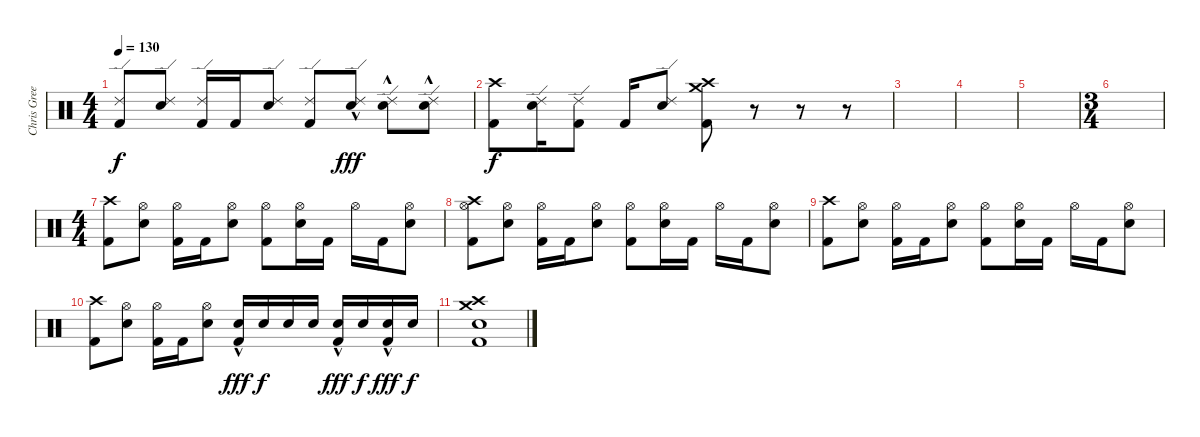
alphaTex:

\track ("Chris Greer - Drums" "Chris Gree") {instrument percussion}
\staff {score}
\articulation defaults
\ts (4 4)
\tempo 130
\clef neutral
\ks c
("Ride (edge) 2" "Kick (hit) 2").8{dy f} ("Ride (edge) 2" "Electric Snare (hit)").8 ("Ride (edge) 2" "Kick (hit) 2").16 "Kick (hit) 2".16 ("Ride (edge) 2" "Electric Snare (hit)").8 ("Ride (edge) 2" "Kick (hit) 2").8 ("Ride (edge) 2" "Electric Snare (hit)"{hac}).8{dy fff} ("Ride (edge) 2" "Electric Snare (hit)"{hac}).8 ("Ride (edge) 2" "Electric Snare (hit)"{hac}).8 |
("Crash high (hit)" "Kick (hit) 2").8{dy f} ("Ride (edge) 2" "Electric Snare (hit)").16 ("Ride (edge) 2" "Kick (hit) 2").8 "Kick (hit) 2".16 ("Ride (edge) 2" "Electric Snare (hit)").8 ("Crash high (hit)" "Crash medium (hit)" "Kick (hit) 2").8 r.8 r.8 r.8 |
|
|
|
\ts (3 4)
|
\ts (4 4)
("Crash high (hit)" "Kick (hit) 2").8 ("Hi-Hat (open)" "Electric Snare (hit)").8 ("Hi-Hat (open)" "Kick (hit) 2").16 "Kick (hit) 2".16 ("Hi-Hat (open)" "Electric Snare (hit)").8 ("Hi-Hat (open)" "Kick (hit) 2").8 ("Hi-Hat (open)" "Electric Snare (hit)").16 "Kick (hit) 2".16 "Hi-Hat (open)".16 "Kick (hit) 2".16 ("Hi-Hat (open)" "Electric Snare (hit)").8 |
("Crash high (hit)" "Hi-Hat (open)" "Kick (hit) 2").8 ("Hi-Hat (open)" "Electric Snare (hit)").8 ("Hi-Hat (open)" "Kick (hit) 2").16 "Kick (hit) 2".16 ("Hi-Hat (open)" "Electric Snare (hit)").8 ("Hi-Hat (open)" "Kick (hit) 2").8 ("Hi-Hat (open)" "Electric Snare (hit)").16 "Kick (hit) 2".16 "Hi-Hat (open)".16 "Kick (hit) 2".16 ("Hi-Hat (open)" "Electric Snare (hit)").8 |
("Crash high (hit)" "Kick (hit) 2").8 ("Hi-Hat (open)" "Electric Snare (hit)").8 ("Hi-Hat (open)" "Kick (hit) 2").16 "Kick (hit) 2".16 ("Hi-Hat (open)" "Electric Snare (hit)").8 ("Hi-Hat (open)" "Kick (hit) 2").8 ("Hi-Hat (open)" "Electric Snare (hit)").16 "Kick (hit) 2".16 "Hi-Hat (open)".16 "Kick (hit) 2".16 ("Hi-Hat (open)" "Electric Snare (hit)").8 |
("Crash high (hit)" "Kick (hit) 2").8 ("Hi-Hat (open)" "Electric Snare (hit)").8 ("Hi-Hat (open)" "Kick (hit) 2").16 "Kick (hit) 2".16 ("Hi-Hat (open)" "Electric Snare (hit)").8 ("Electric Snare (hit)" "Kick (hit) 2"{hac}).16{dy fff} "Electric Snare (hit)".16{dy f} "Electric Snare (hit)".16 "Electric Snare (hit)".16 ("Electric Snare (hit)" "Kick (hit) 2"{hac}).16{dy fff} "Electric Snare (hit)".16{dy f} ("Electric Snare (hit)" "Kick (hit) 2"{hac}).16{dy fff} "Electric Snare (hit)".16{dy f} |
("Crash high (hit)" "Crash medium (hit)" "Electric Snare (hit)" "Kick (hit) 2").1
